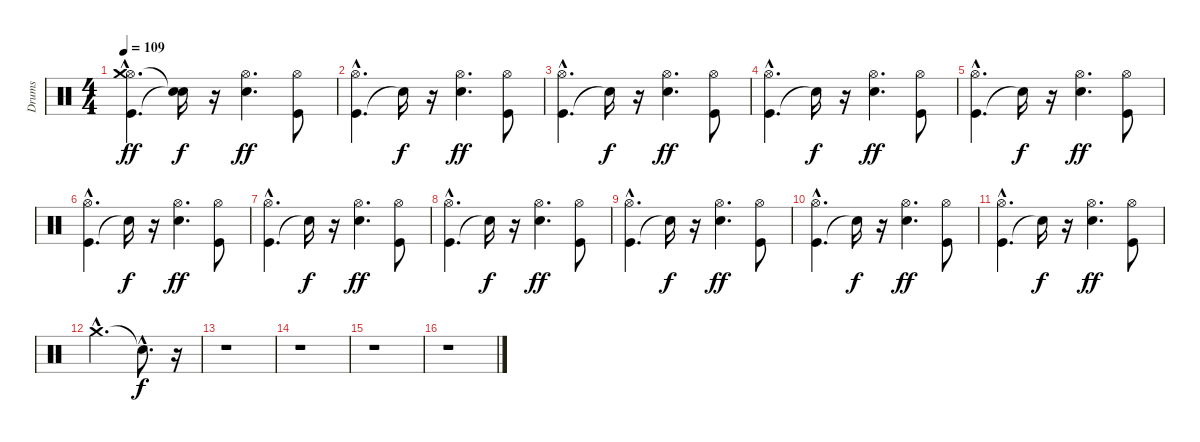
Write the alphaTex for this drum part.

\track ("Drums" "Drums") {instrument percussion}
\staff {score}
\articulation defaults
\ts (4 4)
\tempo 109
\clef neutral
\ks c
("Kick (hit)"{hac} "Hi-Hat (open)"{hac} "Crash medium (hit)"{hac}).4{d dy ff} ("Snare (hit)"{t} "Snare (hit)"{t}).16{dy f} r.16 ("Electric Snare (hit)" "Hi-Hat (open)").4{d dy ff} ("Kick (hit)" "Hi-Hat (open)").8 |
("Kick (hit)"{hac} "Hi-Hat (open)"{hac}).4{d} "Snare (hit)"{t}.16{dy f} r.16 ("Electric Snare (hit)" "Hi-Hat (open)").4{d dy ff} ("Kick (hit)" "Hi-Hat (open)").8 |
("Kick (hit)"{hac} "Hi-Hat (open)"{hac}).4{d} "Snare (hit)"{t}.16{dy f} r.16 ("Electric Snare (hit)" "Hi-Hat (open)").4{d dy ff} ("Kick (hit)" "Hi-Hat (open)").8 |
("Kick (hit)"{hac} "Hi-Hat (open)"{hac}).4{d} "Snare (hit)"{t}.16{dy f} r.16 ("Electric Snare (hit)" "Hi-Hat (open)").4{d dy ff} ("Kick (hit)" "Hi-Hat (open)").8 |
("Kick (hit)"{hac} "Hi-Hat (open)"{hac}).4{d} "Snare (hit)"{t}.16{dy f} r.16 ("Electric Snare (hit)" "Hi-Hat (open)").4{d dy ff} ("Kick (hit)" "Hi-Hat (open)").8 |
("Kick (hit)"{hac} "Hi-Hat (open)"{hac}).4{d} "Snare (hit)"{t}.16{dy f} r.16 ("Electric Snare (hit)" "Hi-Hat (open)").4{d dy ff} ("Kick (hit)" "Hi-Hat (open)").8 |
("Kick (hit)"{hac} "Hi-Hat (open)"{hac}).4{d} "Snare (hit)"{t}.16{dy f} r.16 ("Electric Snare (hit)" "Hi-Hat (open)").4{d dy ff} ("Kick (hit)" "Hi-Hat (open)").8 |
("Kick (hit)"{hac} "Hi-Hat (open)"{hac}).4{d} "Snare (hit)"{t}.16{dy f} r.16 ("Electric Snare (hit)" "Hi-Hat (open)").4{d dy ff} ("Kick (hit)" "Hi-Hat (open)").8 |
("Kick (hit)"{hac} "Hi-Hat (open)"{hac}).4{d} "Snare (hit)"{t}.16{dy f} r.16 ("Electric Snare (hit)" "Hi-Hat (open)").4{d dy ff} ("Kick (hit)" "Hi-Hat (open)").8 |
("Kick (hit)"{hac} "Hi-Hat (open)"{hac}).4{d} "Snare (hit)"{t}.16{dy f} r.16 ("Electric Snare (hit)" "Hi-Hat (open)").4{d dy ff} ("Kick (hit)" "Hi-Hat (open)").8 |
("Kick (hit)"{hac} "Hi-Hat (open)"{hac}).4{d} "Snare (hit)"{t}.16{dy f} r.16 ("Electric Snare (hit)" "Hi-Hat (open)").4{d dy ff} ("Kick (hit)" "Hi-Hat (open)").8 |
"Crash medium (hit)"{hac}.2{d} "Snare (hit)"{hac t}.8{d dy f} r.16 |
r.1 |
r.1 |
r.1 |
r.1
